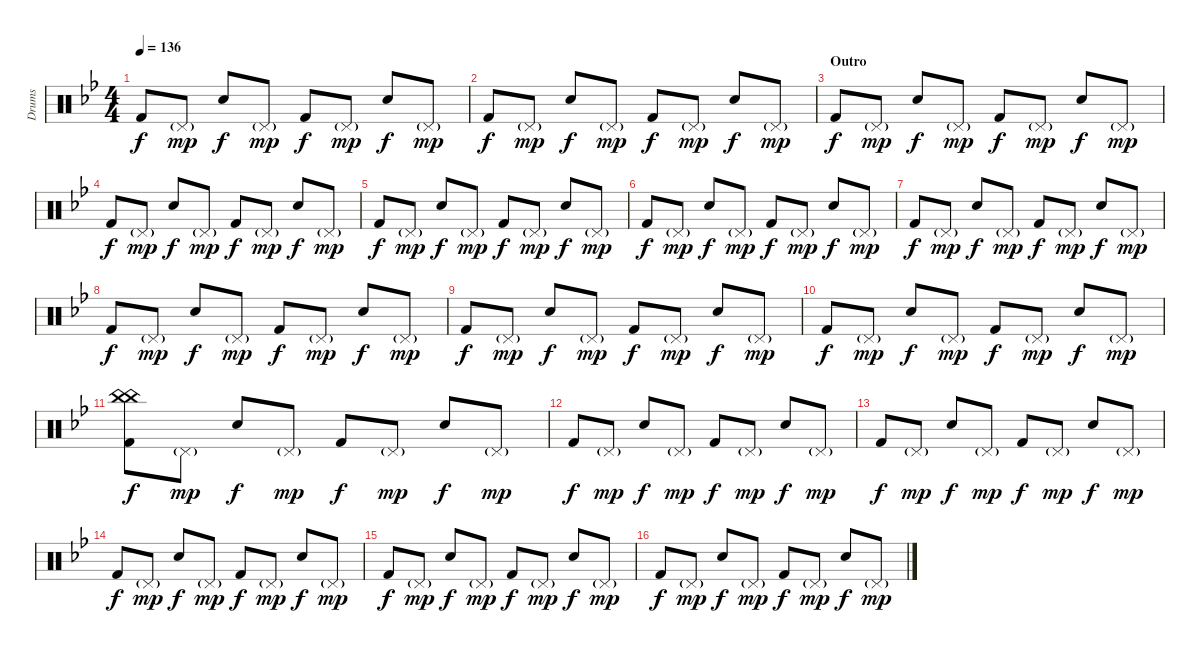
\track ("Drums" "Drums") {instrument percussion}
\staff {score}
\articulation defaults
\ts (4 4)
\tempo 136
\clef neutral
\ks gminor "Kick (hit) 2".8{dy f} "Pedal Hi-Hat (hit)"{g}.8{dy mp} "Hand Clap (hit)".8{dy f} "Pedal Hi-Hat (hit)"{g}.8{dy mp} "Kick (hit) 2".8{dy f} "Pedal Hi-Hat (hit)"{g}.8{dy mp} "Hand Clap (hit)".8{dy f} "Pedal Hi-Hat (hit)"{g}.8{dy mp}
|
"Kick (hit) 2".8{dy f} "Pedal Hi-Hat (hit)"{g}.8{dy mp} "Hand Clap (hit)".8{dy f} "Pedal Hi-Hat (hit)"{g}.8{dy mp} "Kick (hit) 2".8{dy f} "Pedal Hi-Hat (hit)"{g}.8{dy mp} "Hand Clap (hit)".8{dy f} "Pedal Hi-Hat (hit)"{g}.8{dy mp} |
\section ("" "Outro")
"Kick (hit) 2".8{dy f} "Pedal Hi-Hat (hit)"{g}.8{dy mp} "Hand Clap (hit)".8{dy f} "Pedal Hi-Hat (hit)"{g}.8{dy mp} "Kick (hit) 2".8{dy f} "Pedal Hi-Hat (hit)"{g}.8{dy mp} "Hand Clap (hit)".8{dy f} "Pedal Hi-Hat (hit)"{g}.8{dy mp} |
"Kick (hit) 2".8{dy f} "Pedal Hi-Hat (hit)"{g}.8{dy mp} "Hand Clap (hit)".8{dy f} "Pedal Hi-Hat (hit)"{g}.8{dy mp} "Kick (hit) 2".8{dy f} "Pedal Hi-Hat (hit)"{g}.8{dy mp} "Hand Clap (hit)".8{dy f} "Pedal Hi-Hat (hit)"{g}.8{dy mp} |
"Kick (hit) 2".8{dy f} "Pedal Hi-Hat (hit)"{g}.8{dy mp} "Hand Clap (hit)".8{dy f} "Pedal Hi-Hat (hit)"{g}.8{dy mp} "Kick (hit) 2".8{dy f} "Pedal Hi-Hat (hit)"{g}.8{dy mp} "Hand Clap (hit)".8{dy f} "Pedal Hi-Hat (hit)"{g}.8{dy mp} |
"Kick (hit) 2".8{dy f} "Pedal Hi-Hat (hit)"{g}.8{dy mp} "Hand Clap (hit)".8{dy f} "Pedal Hi-Hat (hit)"{g}.8{dy mp} "Kick (hit) 2".8{dy f} "Pedal Hi-Hat (hit)"{g}.8{dy mp} "Hand Clap (hit)".8{dy f} "Pedal Hi-Hat (hit)"{g}.8{dy mp} |
"Kick (hit) 2".8{dy f} "Pedal Hi-Hat (hit)"{g}.8{dy mp} "Hand Clap (hit)".8{dy f} "Pedal Hi-Hat (hit)"{g}.8{dy mp} "Kick (hit) 2".8{dy f} "Pedal Hi-Hat (hit)"{g}.8{dy mp} "Hand Clap (hit)".8{dy f} "Pedal Hi-Hat (hit)"{g}.8{dy mp} |
"Kick (hit) 2".8{dy f} "Pedal Hi-Hat (hit)"{g}.8{dy mp} "Hand Clap (hit)".8{dy f} "Pedal Hi-Hat (hit)"{g}.8{dy mp} "Kick (hit) 2".8{dy f} "Pedal Hi-Hat (hit)"{g}.8{dy mp} "Hand Clap (hit)".8{dy f} "Pedal Hi-Hat (hit)"{g}.8{dy mp} |
"Kick (hit) 2".8{dy f} "Pedal Hi-Hat (hit)"{g}.8{dy mp} "Hand Clap (hit)".8{dy f} "Pedal Hi-Hat (hit)"{g}.8{dy mp} "Kick (hit) 2".8{dy f} "Pedal Hi-Hat (hit)"{g}.8{dy mp} "Hand Clap (hit)".8{dy f} "Pedal Hi-Hat (hit)"{g}.8{dy mp} |
"Kick (hit) 2".8{dy f} "Pedal Hi-Hat (hit)"{g}.8{dy mp} "Hand Clap (hit)".8{dy f} "Pedal Hi-Hat (hit)"{g}.8{dy mp} "Kick (hit) 2".8{dy f} "Pedal Hi-Hat (hit)"{g}.8{dy mp} "Hand Clap (hit)".8{dy f} "Pedal Hi-Hat (hit)"{g}.8{dy mp} |
("China (hit)" "China (hit)" "Kick (hit) 2").8{dy f} "Pedal Hi-Hat (hit)"{g}.8{dy mp} "Hand Clap (hit)".8{dy f} "Pedal Hi-Hat (hit)"{g}.8{dy mp} "Kick (hit) 2".8{dy f} "Pedal Hi-Hat (hit)"{g}.8{dy mp} "Hand Clap (hit)".8{dy f} "Pedal Hi-Hat (hit)"{g}.8{dy mp} |
"Kick (hit) 2".8{dy f} "Pedal Hi-Hat (hit)"{g}.8{dy mp} "Hand Clap (hit)".8{dy f} "Pedal Hi-Hat (hit)"{g}.8{dy mp} "Kick (hit) 2".8{dy f} "Pedal Hi-Hat (hit)"{g}.8{dy mp} "Hand Clap (hit)".8{dy f} "Pedal Hi-Hat (hit)"{g}.8{dy mp} |
"Kick (hit) 2".8{dy f} "Pedal Hi-Hat (hit)"{g}.8{dy mp} "Hand Clap (hit)".8{dy f} "Pedal Hi-Hat (hit)"{g}.8{dy mp} "Kick (hit) 2".8{dy f} "Pedal Hi-Hat (hit)"{g}.8{dy mp} "Hand Clap (hit)".8{dy f} "Pedal Hi-Hat (hit)"{g}.8{dy mp} |
"Kick (hit) 2".8{dy f} "Pedal Hi-Hat (hit)"{g}.8{dy mp} "Hand Clap (hit)".8{dy f} "Pedal Hi-Hat (hit)"{g}.8{dy mp} "Kick (hit) 2".8{dy f} "Pedal Hi-Hat (hit)"{g}.8{dy mp} "Hand Clap (hit)".8{dy f} "Pedal Hi-Hat (hit)"{g}.8{dy mp} |
"Kick (hit) 2".8{dy f} "Pedal Hi-Hat (hit)"{g}.8{dy mp} "Hand Clap (hit)".8{dy f} "Pedal Hi-Hat (hit)"{g}.8{dy mp} "Kick (hit) 2".8{dy f} "Pedal Hi-Hat (hit)"{g}.8{dy mp} "Hand Clap (hit)".8{dy f} "Pedal Hi-Hat (hit)"{g}.8{dy mp} |
"Kick (hit) 2".8{dy f} "Pedal Hi-Hat (hit)"{g}.8{dy mp} "Hand Clap (hit)".8{dy f} "Pedal Hi-Hat (hit)"{g}.8{dy mp} "Kick (hit) 2".8{dy f} "Pedal Hi-Hat (hit)"{g}.8{dy mp} "Hand Clap (hit)".8{dy f} "Pedal Hi-Hat (hit)"{g}.8{dy mp}
